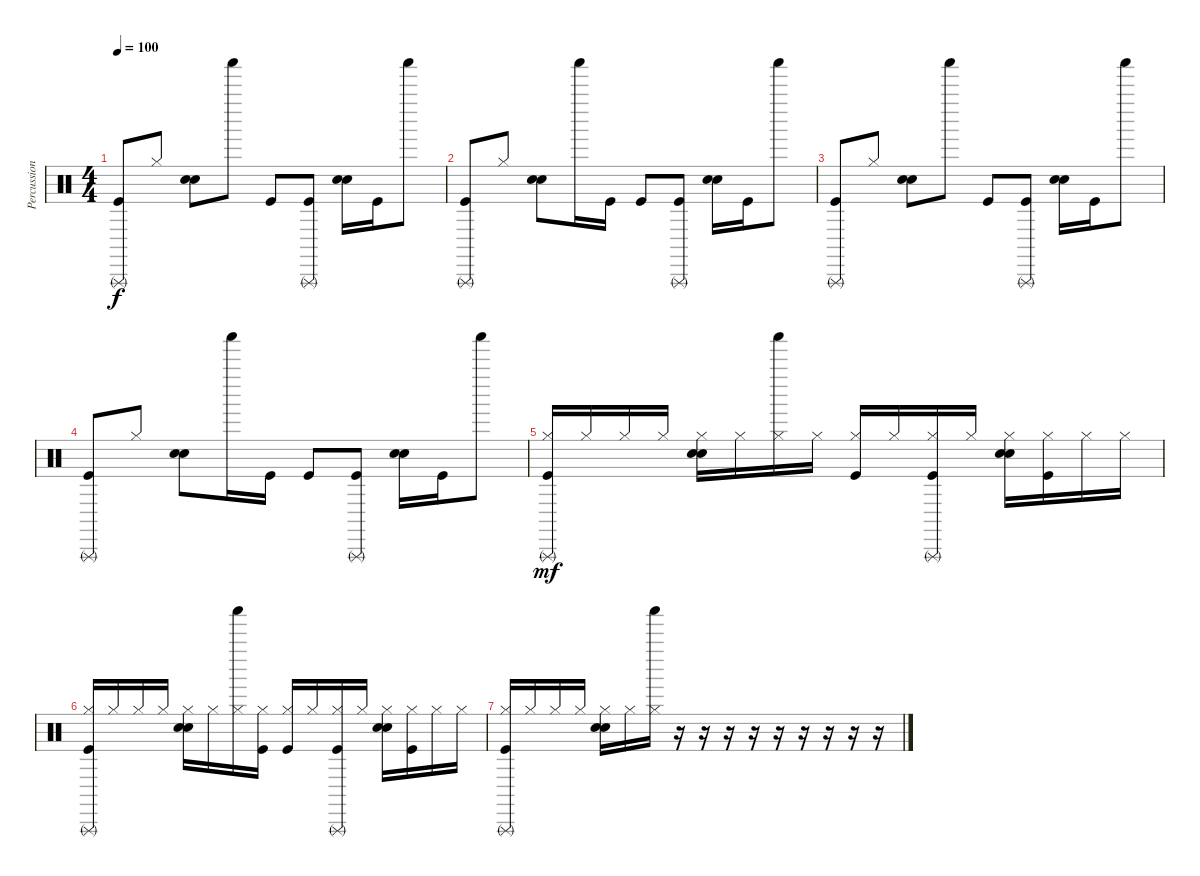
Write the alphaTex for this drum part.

\track ("Percussion" "Percussion") {instrument percussion}
\staff {score}
\articulation defaults
\ts (4 4)
\tempo 100
\clef neutral
\ks c
("Triangle (rnute)" "Kick (hit)").8{dy f} "Hi-Hat (closed)".8 ("Hand Clap (hit)" "Electric Snare (hit)").8 "Shaker (hit)".8 "Kick (hit)".8 ("Triangle (rnute)" "Kick (hit)").8 ("Hand Clap (hit)" "Electric Snare (hit)").16 "Kick (hit)".16 "Shaker (hit)".8 |
("Triangle (rnute)" "Kick (hit)").8 "Hi-Hat (closed)".8 ("Hand Clap (hit)" "Electric Snare (hit)").8 "Shaker (hit)".16 "Kick (hit)".16 "Kick (hit)".8 ("Triangle (rnute)" "Kick (hit)").8 ("Hand Clap (hit)" "Electric Snare (hit)").16 "Kick (hit)".16 "Shaker (hit)".8 |
("Triangle (rnute)" "Kick (hit)").8 "Hi-Hat (closed)".8 ("Hand Clap (hit)" "Electric Snare (hit)").8 "Shaker (hit)".8 "Kick (hit)".8 ("Triangle (rnute)" "Kick (hit)").8 ("Hand Clap (hit)" "Electric Snare (hit)").16 "Kick (hit)".16 "Shaker (hit)".8 |
("Triangle (rnute)" "Kick (hit)").8 "Hi-Hat (closed)".8 ("Hand Clap (hit)" "Electric Snare (hit)").8 "Shaker (hit)".16 "Kick (hit)".16 "Kick (hit)".8 ("Triangle (rnute)" "Kick (hit)").8 ("Hand Clap (hit)" "Electric Snare (hit)").16 "Kick (hit)".16 "Shaker (hit)".8 |
("Triangle (rnute)" "Hi-Hat (closed)" "Kick (hit)").16{dy mf} "Hi-Hat (closed)".16 "Hi-Hat (closed)".16 "Hi-Hat (closed)".16 ("Hi-Hat (closed)" "Hand Clap (hit)" "Electric Snare (hit)").16 "Hi-Hat (closed)".16 ("Shaker (hit)" "Hi-Hat (closed)").16 "Hi-Hat (closed)".16 ("Hi-Hat (closed)" "Kick (hit)").16 "Hi-Hat (closed)".16 ("Triangle (rnute)" "Hi-Hat (closed)" "Kick (hit)").16 "Hi-Hat (closed)".16 ("Hi-Hat (closed)" "Hand Clap (hit)" "Electric Snare (hit)").16 ("Hi-Hat (closed)" "Kick (hit)").16 "Hi-Hat (closed)".16 "Hi-Hat (closed)".16 |
("Triangle (rnute)" "Hi-Hat (closed)" "Kick (hit)").16 "Hi-Hat (closed)".16 "Hi-Hat (closed)".16 "Hi-Hat (closed)".16 ("Hi-Hat (closed)" "Hand Clap (hit)" "Electric Snare (hit)").16 "Hi-Hat (closed)".16 ("Shaker (hit)" "Hi-Hat (closed)").16 ("Hi-Hat (closed)" "Kick (hit)").16 ("Hi-Hat (closed)" "Kick (hit)").16 "Hi-Hat (closed)".16 ("Triangle (rnute)" "Hi-Hat (closed)" "Kick (hit)").16 "Hi-Hat (closed)".16 ("Hi-Hat (closed)" "Hand Clap (hit)" "Electric Snare (hit)").16 ("Hi-Hat (closed)" "Kick (hit)").16 "Hi-Hat (closed)".16 "Hi-Hat (closed)".16 |
("Triangle (rnute)" "Hi-Hat (closed)" "Kick (hit)").16 "Hi-Hat (closed)".16 "Hi-Hat (closed)".16 "Hi-Hat (closed)".16 ("Hi-Hat (closed)" "Hand Clap (hit)" "Electric Snare (hit)").16 "Hi-Hat (closed)".16 ("Shaker (hit)" "Hi-Hat (closed)").16 r.16 r.16 r.16 r.16 r.16 r.16 r.16 r.16 r.16
